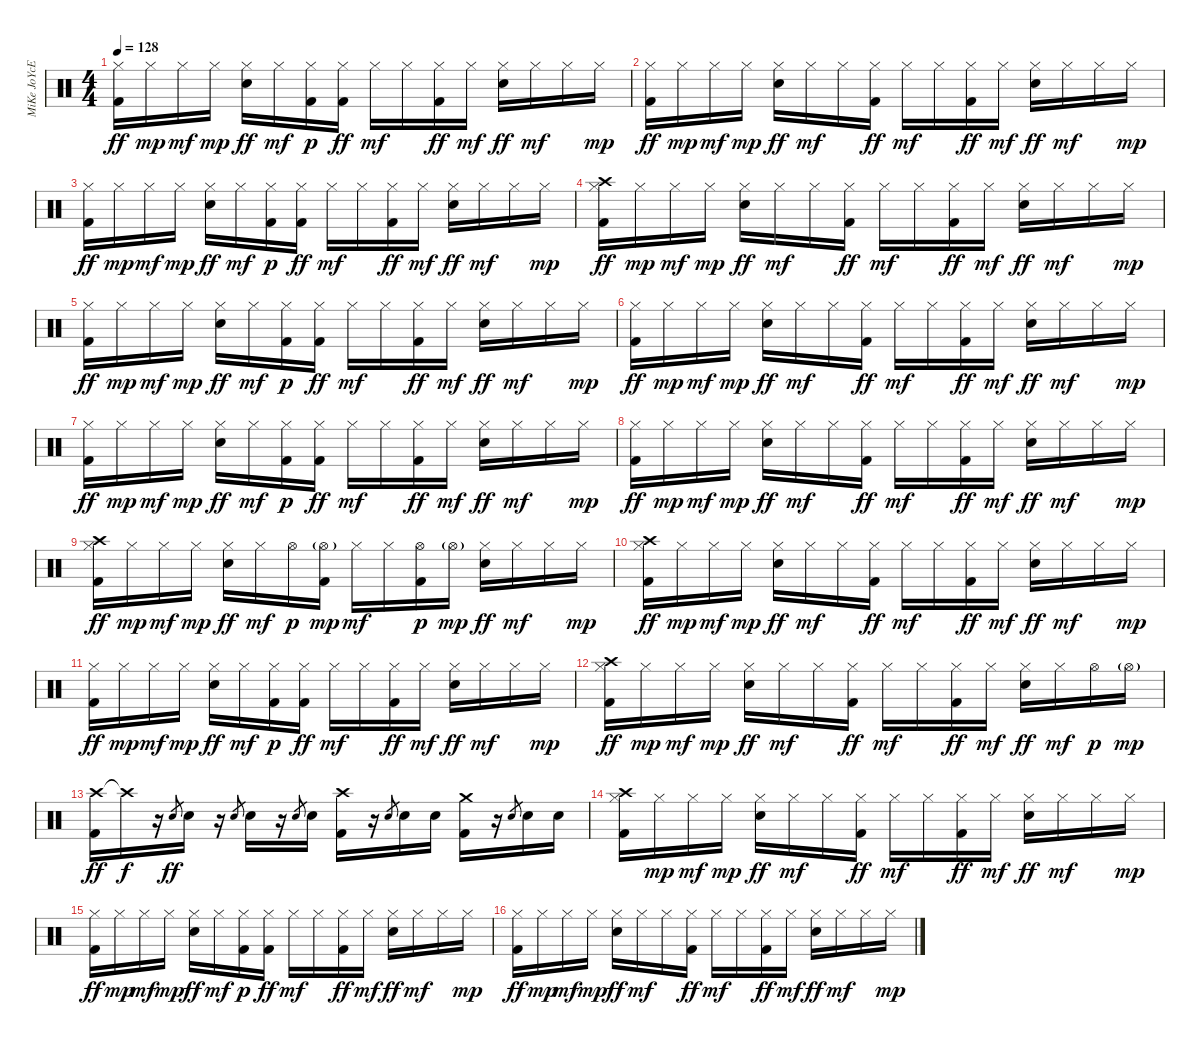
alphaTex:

\track ("MiKe JoYcE" "MiKe JoYcE") {instrument percussion}
\staff {score}
\articulation defaults
\ts (4 4)
\tempo 128
\clef neutral
\ks c
("Hi-Hat (closed)" "Kick (hit) 2").16{dy ff} "Hi-Hat (closed)".16{dy mp} "Hi-Hat (closed)".16{dy mf} "Hi-Hat (closed)".16{dy mp} ("Hi-Hat (closed)" "Electric Snare (hit)").16{dy ff} "Hi-Hat (closed)".16{dy mf} ("Hi-Hat (closed)" "Kick (hit) 2").16{dy p} ("Hi-Hat (closed)" "Kick (hit) 2").16{dy ff} "Hi-Hat (closed)".16{dy mf} "Hi-Hat (closed)".16 ("Hi-Hat (closed)" "Kick (hit) 2").16{dy ff} "Hi-Hat (closed)".16{dy mf} ("Hi-Hat (closed)" "Electric Snare (hit)").16{dy ff} "Hi-Hat (closed)".16{dy mf} "Hi-Hat (closed)".16 "Hi-Hat (closed)".16{dy mp} |
("Hi-Hat (closed)" "Kick (hit) 2").16{dy ff} "Hi-Hat (closed)".16{dy mp} "Hi-Hat (closed)".16{dy mf} "Hi-Hat (closed)".16{dy mp} ("Hi-Hat (closed)" "Electric Snare (hit)").16{dy ff} "Hi-Hat (closed)".16{dy mf} "Hi-Hat (closed)".16 ("Hi-Hat (closed)" "Kick (hit) 2").16{dy ff} "Hi-Hat (closed)".16{dy mf} "Hi-Hat (closed)".16 ("Hi-Hat (closed)" "Kick (hit) 2").16{dy ff} "Hi-Hat (closed)".16{dy mf} ("Hi-Hat (closed)" "Electric Snare (hit)").16{dy ff} "Hi-Hat (closed)".16{dy mf} "Hi-Hat (closed)".16 "Hi-Hat (closed)".16{dy mp} |
("Hi-Hat (closed)" "Kick (hit) 2").16{dy ff} "Hi-Hat (closed)".16{dy mp} "Hi-Hat (closed)".16{dy mf} "Hi-Hat (closed)".16{dy mp} ("Hi-Hat (closed)" "Electric Snare (hit)").16{dy ff} "Hi-Hat (closed)".16{dy mf} ("Hi-Hat (closed)" "Kick (hit) 2").16{dy p} ("Hi-Hat (closed)" "Kick (hit) 2").16{dy ff} "Hi-Hat (closed)".16{dy mf} "Hi-Hat (closed)".16 ("Hi-Hat (closed)" "Kick (hit) 2").16{dy ff} "Hi-Hat (closed)".16{dy mf} ("Hi-Hat (closed)" "Electric Snare (hit)").16{dy ff} "Hi-Hat (closed)".16{dy mf} "Hi-Hat (closed)".16 "Hi-Hat (closed)".16{dy mp} |
("Hi-Hat (closed)" "Crash high (hit)" "Kick (hit) 2").16{dy ff} "Hi-Hat (closed)".16{dy mp} "Hi-Hat (closed)".16{dy mf} "Hi-Hat (closed)".16{dy mp} ("Hi-Hat (closed)" "Electric Snare (hit)").16{dy ff} "Hi-Hat (closed)".16{dy mf} "Hi-Hat (closed)".16 ("Hi-Hat (closed)" "Kick (hit) 2").16{dy ff} "Hi-Hat (closed)".16{dy mf} "Hi-Hat (closed)".16 ("Hi-Hat (closed)" "Kick (hit) 2").16{dy ff} "Hi-Hat (closed)".16{dy mf} ("Hi-Hat (closed)" "Electric Snare (hit)").16{dy ff} "Hi-Hat (closed)".16{dy mf} "Hi-Hat (closed)".16 "Hi-Hat (closed)".16{dy mp} |
("Hi-Hat (closed)" "Kick (hit) 2").16{dy ff} "Hi-Hat (closed)".16{dy mp} "Hi-Hat (closed)".16{dy mf} "Hi-Hat (closed)".16{dy mp} ("Hi-Hat (closed)" "Electric Snare (hit)").16{dy ff} "Hi-Hat (closed)".16{dy mf} ("Hi-Hat (closed)" "Kick (hit) 2").16{dy p} ("Hi-Hat (closed)" "Kick (hit) 2").16{dy ff} "Hi-Hat (closed)".16{dy mf} "Hi-Hat (closed)".16 ("Hi-Hat (closed)" "Kick (hit) 2").16{dy ff} "Hi-Hat (closed)".16{dy mf} ("Hi-Hat (closed)" "Electric Snare (hit)").16{dy ff} "Hi-Hat (closed)".16{dy mf} "Hi-Hat (closed)".16 "Hi-Hat (closed)".16{dy mp} |
("Hi-Hat (closed)" "Kick (hit) 2").16{dy ff} "Hi-Hat (closed)".16{dy mp} "Hi-Hat (closed)".16{dy mf} "Hi-Hat (closed)".16{dy mp} ("Hi-Hat (closed)" "Electric Snare (hit)").16{dy ff} "Hi-Hat (closed)".16{dy mf} "Hi-Hat (closed)".16 ("Hi-Hat (closed)" "Kick (hit) 2").16{dy ff} "Hi-Hat (closed)".16{dy mf} "Hi-Hat (closed)".16 ("Hi-Hat (closed)" "Kick (hit) 2").16{dy ff} "Hi-Hat (closed)".16{dy mf} ("Hi-Hat (closed)" "Electric Snare (hit)").16{dy ff} "Hi-Hat (closed)".16{dy mf} "Hi-Hat (closed)".16 "Hi-Hat (closed)".16{dy mp} |
("Hi-Hat (closed)" "Kick (hit) 2").16{dy ff} "Hi-Hat (closed)".16{dy mp} "Hi-Hat (closed)".16{dy mf} "Hi-Hat (closed)".16{dy mp} ("Hi-Hat (closed)" "Electric Snare (hit)").16{dy ff} "Hi-Hat (closed)".16{dy mf} ("Hi-Hat (closed)" "Kick (hit) 2").16{dy p} ("Hi-Hat (closed)" "Kick (hit) 2").16{dy ff} "Hi-Hat (closed)".16{dy mf} "Hi-Hat (closed)".16 ("Hi-Hat (closed)" "Kick (hit) 2").16{dy ff} "Hi-Hat (closed)".16{dy mf} ("Hi-Hat (closed)" "Electric Snare (hit)").16{dy ff} "Hi-Hat (closed)".16{dy mf} "Hi-Hat (closed)".16 "Hi-Hat (closed)".16{dy mp} |
("Hi-Hat (closed)" "Kick (hit) 2").16{dy ff} "Hi-Hat (closed)".16{dy mp} "Hi-Hat (closed)".16{dy mf} "Hi-Hat (closed)".16{dy mp} ("Hi-Hat (closed)" "Electric Snare (hit)").16{dy ff} "Hi-Hat (closed)".16{dy mf} "Hi-Hat (closed)".16 ("Hi-Hat (closed)" "Kick (hit) 2").16{dy ff} "Hi-Hat (closed)".16{dy mf} "Hi-Hat (closed)".16 ("Hi-Hat (closed)" "Kick (hit) 2").16{dy ff} "Hi-Hat (closed)".16{dy mf} ("Hi-Hat (closed)" "Electric Snare (hit)").16{dy ff} "Hi-Hat (closed)".16{dy mf} "Hi-Hat (closed)".16 "Hi-Hat (closed)".16{dy mp} |
("Hi-Hat (closed)" "Crash high (hit)" "Kick (hit) 2").16{dy ff} "Hi-Hat (closed)".16{dy mp} "Hi-Hat (closed)".16{dy mf} "Hi-Hat (closed)".16{dy mp} ("Hi-Hat (closed)" "Electric Snare (hit)").16{dy ff} "Hi-Hat (closed)".16{dy mf} "Hi-Hat (open)".16{dy p} ("Hi-Hat (open)"{g} "Kick (hit) 2").16{dy mp volume 11} "Hi-Hat (closed)".16{dy mf volume 12} "Hi-Hat (closed)".16 ("Hi-Hat (open)" "Kick (hit) 2").16{dy p} "Hi-Hat (open)"{g}.16{dy mp volume 11} ("Hi-Hat (closed)" "Electric Snare (hit)").16{dy ff volume 12} "Hi-Hat (closed)".16{dy mf} "Hi-Hat (closed)".16 "Hi-Hat (closed)".16{dy mp} |
("Hi-Hat (closed)" "Crash high (hit)" "Kick (hit) 2").16{dy ff} "Hi-Hat (closed)".16{dy mp} "Hi-Hat (closed)".16{dy mf} "Hi-Hat (closed)".16{dy mp} ("Hi-Hat (closed)" "Electric Snare (hit)").16{dy ff} "Hi-Hat (closed)".16{dy mf} "Hi-Hat (closed)".16 ("Hi-Hat (closed)" "Kick (hit) 2").16{dy ff} "Hi-Hat (closed)".16{dy mf} "Hi-Hat (closed)".16 ("Hi-Hat (closed)" "Kick (hit) 2").16{dy ff} "Hi-Hat (closed)".16{dy mf} ("Hi-Hat (closed)" "Electric Snare (hit)").16{dy ff} "Hi-Hat (closed)".16{dy mf} "Hi-Hat (closed)".16 "Hi-Hat (closed)".16{dy mp} |
("Hi-Hat (closed)" "Kick (hit) 2").16{dy ff} "Hi-Hat (closed)".16{dy mp} "Hi-Hat (closed)".16{dy mf} "Hi-Hat (closed)".16{dy mp} ("Hi-Hat (closed)" "Electric Snare (hit)").16{dy ff} "Hi-Hat (closed)".16{dy mf} ("Hi-Hat (closed)" "Kick (hit) 2").16{dy p} ("Hi-Hat (closed)" "Kick (hit) 2").16{dy ff} "Hi-Hat (closed)".16{dy mf} "Hi-Hat (closed)".16 ("Hi-Hat (closed)" "Kick (hit) 2").16{dy ff} "Hi-Hat (closed)".16{dy mf} ("Hi-Hat (closed)" "Electric Snare (hit)").16{dy ff} "Hi-Hat (closed)".16{dy mf} "Hi-Hat (closed)".16 "Hi-Hat (closed)".16{dy mp} |
("Hi-Hat (closed)" "Crash high (hit)" "Kick (hit) 2").16{dy ff} "Hi-Hat (closed)".16{dy mp} "Hi-Hat (closed)".16{dy mf} "Hi-Hat (closed)".16{dy mp} ("Hi-Hat (closed)" "Electric Snare (hit)").16{dy ff} "Hi-Hat (closed)".16{dy mf} "Hi-Hat (closed)".16 ("Hi-Hat (closed)" "Kick (hit) 2").16{dy ff} "Hi-Hat (closed)".16{dy mf} "Hi-Hat (closed)".16 ("Hi-Hat (closed)" "Kick (hit) 2").16{dy ff} "Hi-Hat (closed)".16{dy mf} ("Hi-Hat (closed)" "Electric Snare (hit)").16{dy ff} "Hi-Hat (closed)".16{dy mf} "Hi-Hat (open)".16{dy p} "Hi-Hat (open)"{g}.16{dy mp} |
("Crash high (hit)" "Kick (hit) 2").16{dy ff} "Crash high (hit)"{t}.16{dy f} r.16 "Electric Snare (hit)".8{gr dy ff} "Electric Snare (hit)".16 r.16 "Electric Snare (hit)".8{gr} "Electric Snare (hit)".16 r.16 "Electric Snare (hit)".8{gr} "Electric Snare (hit)".16 ("Crash high (hit)" "Kick (hit) 2").16 r.16 "Electric Snare (hit)".8{gr} "Electric Snare (hit)".16 "Electric Snare (hit)".16 ("Crash medium (hit)" "Kick (hit) 2").16 r.16 "Electric Snare (hit)".8{gr} "Electric Snare (hit)".16 "Electric Snare (hit)".16 |
("Hi-Hat (closed)" "Crash high (hit)" "Kick (hit) 2").16 "Hi-Hat (closed)".16{dy mp} "Hi-Hat (closed)".16{dy mf} "Hi-Hat (closed)".16{dy mp} ("Hi-Hat (closed)" "Electric Snare (hit)").16{dy ff} "Hi-Hat (closed)".16{dy mf} "Hi-Hat (closed)".16 ("Hi-Hat (closed)" "Kick (hit) 2").16{dy ff} "Hi-Hat (closed)".16{dy mf} "Hi-Hat (closed)".16 ("Hi-Hat (closed)" "Kick (hit) 2").16{dy ff} "Hi-Hat (closed)".16{dy mf} ("Hi-Hat (closed)" "Electric Snare (hit)").16{dy ff} "Hi-Hat (closed)".16{dy mf} "Hi-Hat (closed)".16 "Hi-Hat (closed)".16{dy mp} |
("Hi-Hat (closed)" "Kick (hit) 2").16{dy ff} "Hi-Hat (closed)".16{dy mp} "Hi-Hat (closed)".16{dy mf} "Hi-Hat (closed)".16{dy mp} ("Hi-Hat (closed)" "Electric Snare (hit)").16{dy ff} "Hi-Hat (closed)".16{dy mf} ("Hi-Hat (closed)" "Kick (hit) 2").16{dy p} ("Hi-Hat (closed)" "Kick (hit) 2").16{dy ff} "Hi-Hat (closed)".16{dy mf} "Hi-Hat (closed)".16 ("Hi-Hat (closed)" "Kick (hit) 2").16{dy ff} "Hi-Hat (closed)".16{dy mf} ("Hi-Hat (closed)" "Electric Snare (hit)").16{dy ff} "Hi-Hat (closed)".16{dy mf} "Hi-Hat (closed)".16 "Hi-Hat (closed)".16{dy mp} |
("Hi-Hat (closed)" "Kick (hit) 2").16{dy ff} "Hi-Hat (closed)".16{dy mp} "Hi-Hat (closed)".16{dy mf} "Hi-Hat (closed)".16{dy mp} ("Hi-Hat (closed)" "Electric Snare (hit)").16{dy ff} "Hi-Hat (closed)".16{dy mf} "Hi-Hat (closed)".16 ("Hi-Hat (closed)" "Kick (hit) 2").16{dy ff} "Hi-Hat (closed)".16{dy mf} "Hi-Hat (closed)".16 ("Hi-Hat (closed)" "Kick (hit) 2").16{dy ff} "Hi-Hat (closed)".16{dy mf} ("Hi-Hat (closed)" "Electric Snare (hit)").16{dy ff} "Hi-Hat (closed)".16{dy mf} "Hi-Hat (closed)".16 "Hi-Hat (closed)".16{dy mp}
